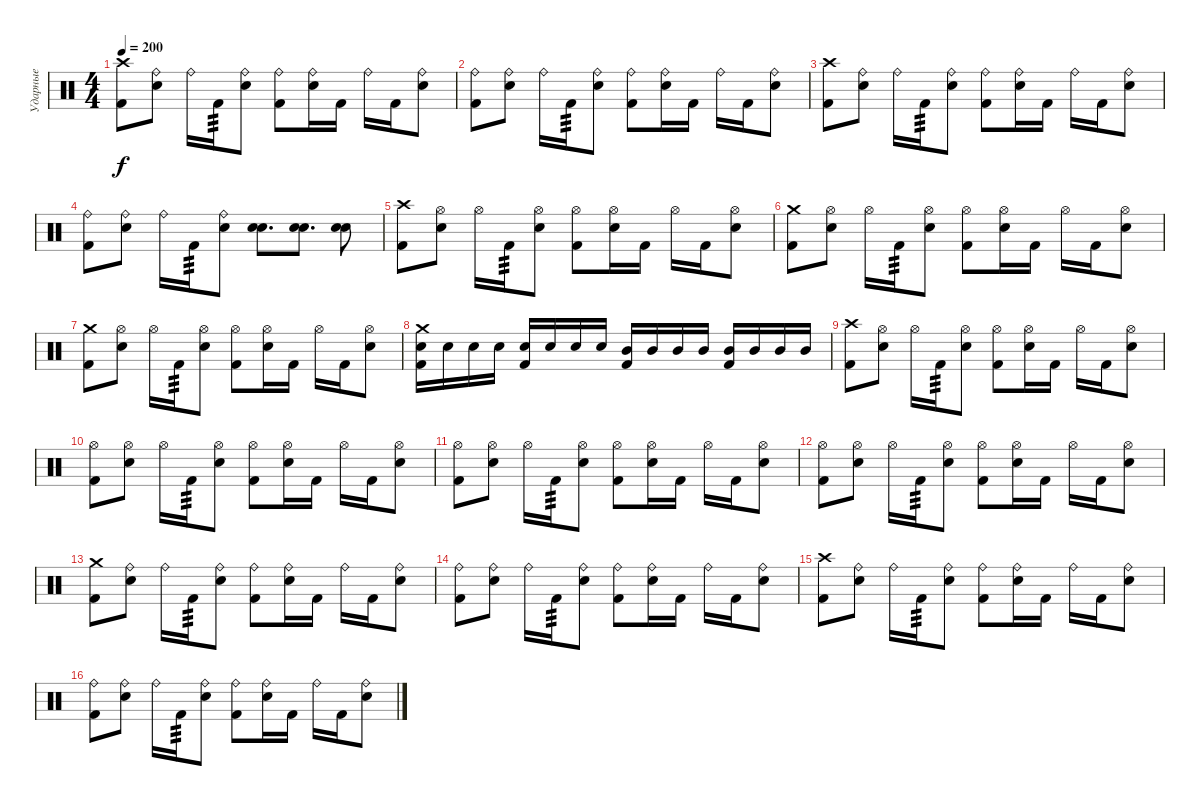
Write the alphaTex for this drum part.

\track ("Ударные" "Ударные") {instrument percussion}
\staff {score}
\articulation defaults
\ts (4 4)
\tempo 200
\clef neutral
\ks c
("Kick (hit) 2" "Crash high (hit)").8{dy f} ("Electric Snare (hit)" "Ride (bell)").8 "Ride (bell)".16 "Kick (hit) 2".16{tp 3} ("Electric Snare (hit)" "Ride (bell)").8 ("Kick (hit) 2" "Ride (bell)").8 ("Electric Snare (hit)" "Ride (bell)").16 "Kick (hit) 2".16 "Ride (bell)".16 "Kick (hit) 2".16 ("Electric Snare (hit)" "Ride (bell)").8 |
("Kick (hit) 2" "Ride (bell)").8 ("Electric Snare (hit)" "Ride (bell)").8 "Ride (bell)".16 "Kick (hit) 2".16{tp 3} ("Electric Snare (hit)" "Ride (bell)").8 ("Kick (hit) 2" "Ride (bell)").8 ("Electric Snare (hit)" "Ride (bell)").16 "Kick (hit) 2".16 "Ride (bell)".16 "Kick (hit) 2".16 ("Electric Snare (hit)" "Ride (bell)").8 |
("Kick (hit) 2" "Crash high (hit)").8 ("Electric Snare (hit)" "Ride (bell)").8 "Ride (bell)".16 "Kick (hit) 2".16{tp 3} ("Electric Snare (hit)" "Ride (bell)").8 ("Kick (hit) 2" "Ride (bell)").8 ("Electric Snare (hit)" "Ride (bell)").16 "Kick (hit) 2".16 "Ride (bell)".16 "Kick (hit) 2".16 ("Electric Snare (hit)" "Ride (bell)").8 |
("Kick (hit) 2" "Ride (bell)").8 ("Electric Snare (hit)" "Ride (bell)").8 "Ride (bell)".16 "Kick (hit) 2".16{tp 3} ("Electric Snare (hit)" "Ride (bell)").8 ("Electric Snare (hit)" "Electric Snare (hit)").8{d} ("Electric Snare (hit)" "Electric Snare (hit)").8{d} ("Electric Snare (hit)" "Electric Snare (hit)").8 |
("Kick (hit) 2" "Crash high (hit)").8 ("Electric Snare (hit)" "Hi-Hat (open)").8 "Hi-Hat (open)".16 "Kick (hit) 2".16{tp 3} ("Electric Snare (hit)" "Hi-Hat (open)").8 ("Kick (hit) 2" "Hi-Hat (open)").8 ("Electric Snare (hit)" "Hi-Hat (open)").16 "Kick (hit) 2".16 "Hi-Hat (open)".16 "Kick (hit) 2".16 ("Electric Snare (hit)" "Hi-Hat (open)").8 |
("Kick (hit) 2" "Crash medium (hit)").8 ("Electric Snare (hit)" "Hi-Hat (open)").8 "Hi-Hat (open)".16 "Kick (hit) 2".16{tp 3} ("Electric Snare (hit)" "Hi-Hat (open)").8 ("Kick (hit) 2" "Hi-Hat (open)").8 ("Electric Snare (hit)" "Hi-Hat (open)").16 "Kick (hit) 2".16 "Hi-Hat (open)".16 "Kick (hit) 2".16 ("Electric Snare (hit)" "Hi-Hat (open)").8 |
("Kick (hit) 2" "Crash medium (hit)").8 ("Electric Snare (hit)" "Hi-Hat (open)").8 "Hi-Hat (open)".16 "Kick (hit) 2".16{tp 3} ("Electric Snare (hit)" "Hi-Hat (open)").8 ("Kick (hit) 2" "Hi-Hat (open)").8 ("Electric Snare (hit)" "Hi-Hat (open)").16 "Kick (hit) 2".16 "Hi-Hat (open)".16 "Kick (hit) 2".16 ("Electric Snare (hit)" "Hi-Hat (open)").8 |
("Crash medium (hit)" "Kick (hit) 2" "Electric Snare (hit)").16 "Electric Snare (hit)".16 "Electric Snare (hit)".16 "Electric Snare (hit)".16 ("Kick (hit) 2" "Electric Snare (hit)").16 "Electric Snare (hit)".16 "Electric Snare (hit)".16 "Electric Snare (hit)".16 ("Kick (hit) 2" "Mid Tom (hit)").16 "Mid Tom (hit)".16 "Mid Tom (hit)".16 "Mid Tom (hit)".16 ("Kick (hit) 2" "Mid Tom (hit)").16 "Mid Tom (hit)".16 "Mid Tom (hit)".16 "Mid Tom (hit)".16 |
("Kick (hit) 2" "Crash high (hit)").8 ("Electric Snare (hit)" "Hi-Hat (open)").8 "Hi-Hat (open)".16 "Kick (hit) 2".16{tp 3} ("Electric Snare (hit)" "Hi-Hat (open)").8 ("Kick (hit) 2" "Hi-Hat (open)").8 ("Electric Snare (hit)" "Hi-Hat (open)").16 "Kick (hit) 2".16 "Hi-Hat (open)".16 "Kick (hit) 2".16 ("Electric Snare (hit)" "Hi-Hat (open)").8 |
("Kick (hit) 2" "Hi-Hat (open)").8 ("Electric Snare (hit)" "Hi-Hat (open)").8 "Hi-Hat (open)".16 "Kick (hit) 2".16{tp 3} ("Electric Snare (hit)" "Hi-Hat (open)").8 ("Kick (hit) 2" "Hi-Hat (open)").8 ("Electric Snare (hit)" "Hi-Hat (open)").16 "Kick (hit) 2".16 "Hi-Hat (open)".16 "Kick (hit) 2".16 ("Electric Snare (hit)" "Hi-Hat (open)").8 |
("Kick (hit) 2" "Hi-Hat (open)").8 ("Electric Snare (hit)" "Hi-Hat (open)").8 "Hi-Hat (open)".16 "Kick (hit) 2".16{tp 3} ("Electric Snare (hit)" "Hi-Hat (open)").8 ("Kick (hit) 2" "Hi-Hat (open)").8 ("Electric Snare (hit)" "Hi-Hat (open)").16 "Kick (hit) 2".16 "Hi-Hat (open)".16 "Kick (hit) 2".16 ("Electric Snare (hit)" "Hi-Hat (open)").8 |
("Kick (hit) 2" "Hi-Hat (open)").8 ("Electric Snare (hit)" "Hi-Hat (open)").8 "Hi-Hat (open)".16 "Kick (hit) 2".16{tp 3} ("Electric Snare (hit)" "Hi-Hat (open)").8 ("Kick (hit) 2" "Hi-Hat (open)").8 ("Electric Snare (hit)" "Hi-Hat (open)").16 "Kick (hit) 2".16 "Hi-Hat (open)".16 "Kick (hit) 2".16 ("Electric Snare (hit)" "Hi-Hat (open)").8 |
("Kick (hit) 2" "Crash medium (hit)").8 ("Electric Snare (hit)" "Ride (bell)").8 "Ride (bell)".16 "Kick (hit) 2".16{tp 3} ("Electric Snare (hit)" "Ride (bell)").8 ("Kick (hit) 2" "Ride (bell)").8 ("Electric Snare (hit)" "Ride (bell)").16 "Kick (hit) 2".16 "Ride (bell)".16 "Kick (hit) 2".16 ("Electric Snare (hit)" "Ride (bell)").8 |
("Kick (hit) 2" "Ride (bell)").8 ("Electric Snare (hit)" "Ride (bell)").8 "Ride (bell)".16 "Kick (hit) 2".16{tp 3} ("Electric Snare (hit)" "Ride (bell)").8 ("Kick (hit) 2" "Ride (bell)").8 ("Electric Snare (hit)" "Ride (bell)").16 "Kick (hit) 2".16 "Ride (bell)".16 "Kick (hit) 2".16 ("Electric Snare (hit)" "Ride (bell)").8 |
("Kick (hit) 2" "Crash high (hit)").8 ("Electric Snare (hit)" "Ride (bell)").8 "Ride (bell)".16 "Kick (hit) 2".16{tp 3} ("Electric Snare (hit)" "Ride (bell)").8 ("Kick (hit) 2" "Ride (bell)").8 ("Electric Snare (hit)" "Ride (bell)").16 "Kick (hit) 2".16 "Ride (bell)".16 "Kick (hit) 2".16 ("Electric Snare (hit)" "Ride (bell)").8 |
("Kick (hit) 2" "Ride (bell)").8 ("Electric Snare (hit)" "Ride (bell)").8 "Ride (bell)".16 "Kick (hit) 2".16{tp 3} ("Electric Snare (hit)" "Ride (bell)").8 ("Kick (hit) 2" "Ride (bell)").8 ("Electric Snare (hit)" "Ride (bell)").16 "Kick (hit) 2".16 "Ride (bell)".16 "Kick (hit) 2".16 ("Electric Snare (hit)" "Ride (bell)").8
